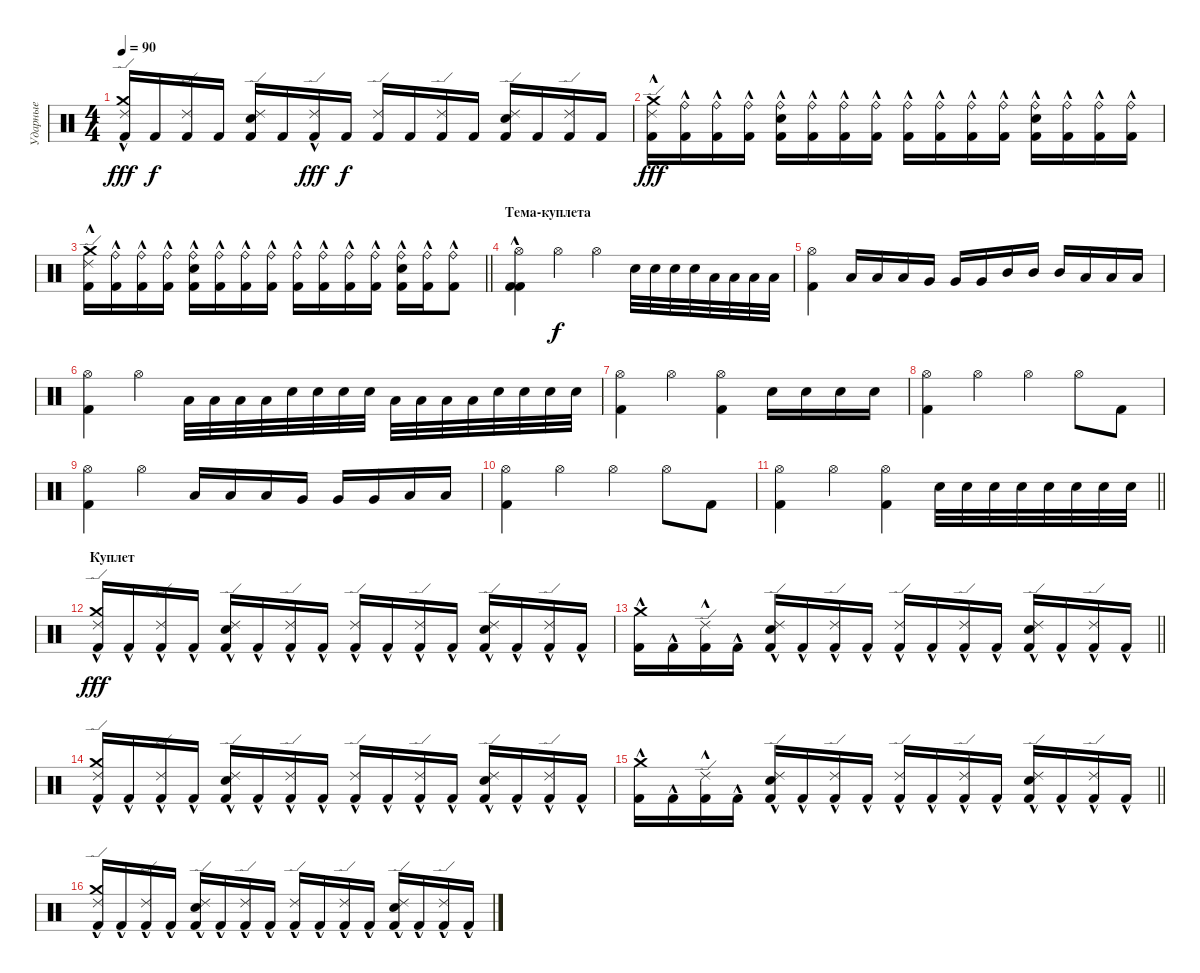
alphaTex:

\track ("Ударные" "Ударные") {instrument percussion}
\staff {score}
\articulation defaults
\ts (4 4)
\tempo 90
\clef neutral
\ks c
("Ride (edge) 2" "Crash medium (hit)" "Kick (hit) 2"{hac}).16{dy fff} "Kick (hit) 2".16{dy f} ("Ride (edge) 2" "Kick (hit) 2").16 "Kick (hit) 2".16 ("Ride (edge) 2" "Snare (hit) 2" "Kick (hit) 2").16 "Kick (hit) 2".16 ("Ride (edge) 2" "Kick (hit) 2"{hac}).16{dy fff} "Kick (hit) 2".16{dy f} ("Ride (edge) 2" "Kick (hit) 2").16 "Kick (hit) 2".16 ("Ride (edge) 2" "Kick (hit) 2").16 "Kick (hit) 2".16 ("Ride (edge) 2" "Snare (hit) 2" "Kick (hit) 2").16 "Kick (hit) 2".16 ("Ride (edge) 2" "Kick (hit) 2").16 "Kick (hit) 2".16 |
("Ride (edge) 2" "Crash medium (hit)" "Kick (hit) 2"{hac}).16{dy fff} ("Kick (hit) 2"{hac} "Ride (bell)").16 ("Kick (hit) 2"{hac} "Ride (bell)").16 ("Kick (hit) 2"{hac} "Ride (bell)").16 ("Ride (bell)" "Snare (hit) 2" "Kick (hit) 2"{hac}).16 ("Kick (hit) 2"{hac} "Ride (bell)").16 ("Kick (hit) 2"{hac} "Ride (bell)").16 ("Kick (hit) 2"{hac} "Ride (bell)").16 ("Kick (hit) 2"{hac} "Ride (bell)").16 ("Kick (hit) 2"{hac} "Ride (bell)").16 ("Kick (hit) 2"{hac} "Ride (bell)").16 ("Kick (hit) 2"{hac} "Ride (bell)").16 ("Ride (bell)" "Snare (hit) 2" "Kick (hit) 2"{hac}).16 ("Kick (hit) 2"{hac} "Ride (bell)").16 ("Kick (hit) 2"{hac} "Ride (bell)").16 ("Kick (hit) 2"{hac} "Ride (bell)").16 |
\barLineRight lightlight
("Ride (edge) 2" "Crash medium (hit)" "Kick (hit) 2"{hac}).16 ("Kick (hit) 2"{hac} "Ride (bell)").16 ("Kick (hit) 2"{hac} "Ride (bell)").16 ("Kick (hit) 2"{hac} "Ride (bell)").16 ("Ride (bell)" "Snare (hit) 2" "Kick (hit) 2"{hac}).16 ("Kick (hit) 2"{hac} "Ride (bell)").16 ("Kick (hit) 2"{hac} "Ride (bell)").16 ("Kick (hit) 2"{hac} "Ride (bell)").16 ("Kick (hit) 2"{hac} "Ride (bell)").16 ("Kick (hit) 2"{hac} "Ride (bell)").16 ("Kick (hit) 2"{hac} "Ride (bell)").16 ("Kick (hit) 2"{hac} "Ride (bell)").16 ("Ride (bell)" "Snare (hit) 2" "Kick (hit) 2"{hac}).16 ("Kick (hit) 2"{hac} "Ride (bell)").16 ("Kick (hit) 2"{hac} "Ride (bell)").8 |
\section ("" "Тема-куплета")
("Hi-Hat (open)" "Kick (hit) 2"{hac} "Kick (hit) 2").4 "Hi-Hat (open)".4{dy f} "Hi-Hat (open)".4 "Snare (hit) 2".32 "Snare (hit) 2".32 "Snare (hit) 2".32 "Snare (hit) 2".32 "Low Tom (hit)".32 "Low Tom (hit)".32 "Low Tom (hit)".32 "Low Tom (hit)".32 |
("Hi-Hat (open)" "Kick (hit) 2").4 "Low Tom (hit)".16 "Low Tom (hit)".16 "Low Tom (hit)".16 "Very Low Tom (hit)".16 "Very Low Tom (hit)".16 "Very Low Tom (hit)".16 "Mid Tom (hit)".16 "Mid Tom (hit)".16 "Mid Tom (hit)".16 "Low Tom (hit)".16 "Low Tom (hit)".16 "Low Tom (hit)".16 |
("Hi-Hat (open)" "Kick (hit) 2").4 "Hi-Hat (open)".4 "Low Tom (hit)".32 "Low Tom (hit)".32 "Low Tom (hit)".32 "Low Tom (hit)".32 "Snare (hit) 2".32 "Snare (hit) 2".32 "Snare (hit) 2".32 "Snare (hit) 2".32 "Low Tom (hit)".32 "Low Tom (hit)".32 "Low Tom (hit)".32 "Low Tom (hit)".32 "Snare (hit) 2".32 "Snare (hit) 2".32 "Snare (hit) 2".32 "Snare (hit) 2".32 |
("Hi-Hat (open)" "Kick (hit) 2").4 "Hi-Hat (open)".4 ("Hi-Hat (open)" "Kick (hit) 2").4 "Snare (hit) 2".16 "Snare (hit) 2".16 "Snare (hit) 2".16 "Snare (hit) 2".16 |
("Hi-Hat (open)" "Kick (hit) 2").4 "Hi-Hat (open)".4 "Hi-Hat (open)".4 "Hi-Hat (open)".8 "Kick (hit) 2".8 |
("Hi-Hat (open)" "Kick (hit) 2").4 "Hi-Hat (open)".4 "Low Floor Tom (hit)".16 "Low Floor Tom (hit)".16 "Low Floor Tom (hit)".16 "Very Low Tom (hit)".16 "Very Low Tom (hit)".16 "Very Low Tom (hit)".16 "Low Tom (hit)".16 "Low Tom (hit)".16 |
("Hi-Hat (open)" "Kick (hit) 2").4 "Hi-Hat (open)".4 "Hi-Hat (open)".4 "Hi-Hat (open)".8 "Kick (hit) 2".8 |
\barLineRight lightlight
("Hi-Hat (open)" "Kick (hit) 2").4 "Hi-Hat (open)".4 ("Hi-Hat (open)" "Kick (hit) 2").4 "Snare (hit) 2".32 "Snare (hit) 2".32 "Snare (hit) 2".32 "Snare (hit) 2".32 "Snare (hit) 2".32 "Snare (hit) 2".32 "Snare (hit) 2".32 "Snare (hit) 2".32 |
\section ("" "Куплет")
("Ride (edge) 2" "Crash medium (hit)" "Kick (hit) 2"{hac}).16{dy fff} "Kick (hit) 2"{hac}.16 ("Ride (edge) 2" "Kick (hit) 2"{hac}).16 "Kick (hit) 2"{hac}.16 ("Ride (edge) 2" "Snare (hit) 2" "Kick (hit) 2"{hac}).16 "Kick (hit) 2"{hac}.16 ("Ride (edge) 2" "Kick (hit) 2"{hac}).16 "Kick (hit) 2"{hac}.16 ("Ride (edge) 2" "Kick (hit) 2"{hac}).16 "Kick (hit) 2"{hac}.16 ("Ride (edge) 2" "Kick (hit) 2"{hac}).16 "Kick (hit) 2"{hac}.16 ("Ride (edge) 2" "Snare (hit) 2" "Kick (hit) 2"{hac}).16 "Kick (hit) 2"{hac}.16 ("Ride (edge) 2" "Kick (hit) 2"{hac}).16 "Kick (hit) 2"{hac}.16 |
\barLineRight lightlight
("Crash medium (hit)" "Kick (hit) 2"{hac}).16 "Kick (hit) 2"{hac}.16 ("Ride (edge) 2" "Kick (hit) 2"{hac}).16 "Kick (hit) 2"{hac}.16 ("Ride (edge) 2" "Snare (hit) 2" "Kick (hit) 2"{hac}).16 "Kick (hit) 2"{hac}.16 ("Ride (edge) 2" "Kick (hit) 2"{hac}).16 "Kick (hit) 2"{hac}.16 ("Ride (edge) 2" "Kick (hit) 2"{hac}).16 "Kick (hit) 2"{hac}.16 ("Ride (edge) 2" "Kick (hit) 2"{hac}).16 "Kick (hit) 2"{hac}.16 ("Ride (edge) 2" "Snare (hit) 2" "Kick (hit) 2"{hac}).16 "Kick (hit) 2"{hac}.16 ("Ride (edge) 2" "Kick (hit) 2"{hac}).16 "Kick (hit) 2"{hac}.16 |
("Ride (edge) 2" "Crash medium (hit)" "Kick (hit) 2"{hac}).16 "Kick (hit) 2"{hac}.16 ("Ride (edge) 2" "Kick (hit) 2"{hac}).16 "Kick (hit) 2"{hac}.16 ("Ride (edge) 2" "Snare (hit) 2" "Kick (hit) 2"{hac}).16 "Kick (hit) 2"{hac}.16 ("Ride (edge) 2" "Kick (hit) 2"{hac}).16 "Kick (hit) 2"{hac}.16 ("Ride (edge) 2" "Kick (hit) 2"{hac}).16 "Kick (hit) 2"{hac}.16 ("Ride (edge) 2" "Kick (hit) 2"{hac}).16 "Kick (hit) 2"{hac}.16 ("Ride (edge) 2" "Snare (hit) 2" "Kick (hit) 2"{hac}).16 "Kick (hit) 2"{hac}.16 ("Ride (edge) 2" "Kick (hit) 2"{hac}).16 "Kick (hit) 2"{hac}.16 |
\barLineRight lightlight
("Crash medium (hit)" "Kick (hit) 2"{hac}).16 "Kick (hit) 2"{hac}.16 ("Ride (edge) 2" "Kick (hit) 2"{hac}).16 "Kick (hit) 2"{hac}.16 ("Ride (edge) 2" "Snare (hit) 2" "Kick (hit) 2"{hac}).16 "Kick (hit) 2"{hac}.16 ("Ride (edge) 2" "Kick (hit) 2"{hac}).16 "Kick (hit) 2"{hac}.16 ("Ride (edge) 2" "Kick (hit) 2"{hac}).16 "Kick (hit) 2"{hac}.16 ("Ride (edge) 2" "Kick (hit) 2"{hac}).16 "Kick (hit) 2"{hac}.16 ("Ride (edge) 2" "Snare (hit) 2" "Kick (hit) 2"{hac}).16 "Kick (hit) 2"{hac}.16 ("Ride (edge) 2" "Kick (hit) 2"{hac}).16 "Kick (hit) 2"{hac}.16 |
("Ride (edge) 2" "Crash medium (hit)" "Kick (hit) 2"{hac}).16 "Kick (hit) 2"{hac}.16 ("Ride (edge) 2" "Kick (hit) 2"{hac}).16 "Kick (hit) 2"{hac}.16 ("Ride (edge) 2" "Snare (hit) 2" "Kick (hit) 2"{hac}).16 "Kick (hit) 2"{hac}.16 ("Ride (edge) 2" "Kick (hit) 2"{hac}).16 "Kick (hit) 2"{hac}.16 ("Ride (edge) 2" "Kick (hit) 2"{hac}).16 "Kick (hit) 2"{hac}.16 ("Ride (edge) 2" "Kick (hit) 2"{hac}).16 "Kick (hit) 2"{hac}.16 ("Ride (edge) 2" "Snare (hit) 2" "Kick (hit) 2"{hac}).16 "Kick (hit) 2"{hac}.16 ("Ride (edge) 2" "Kick (hit) 2"{hac}).16 "Kick (hit) 2"{hac}.16
